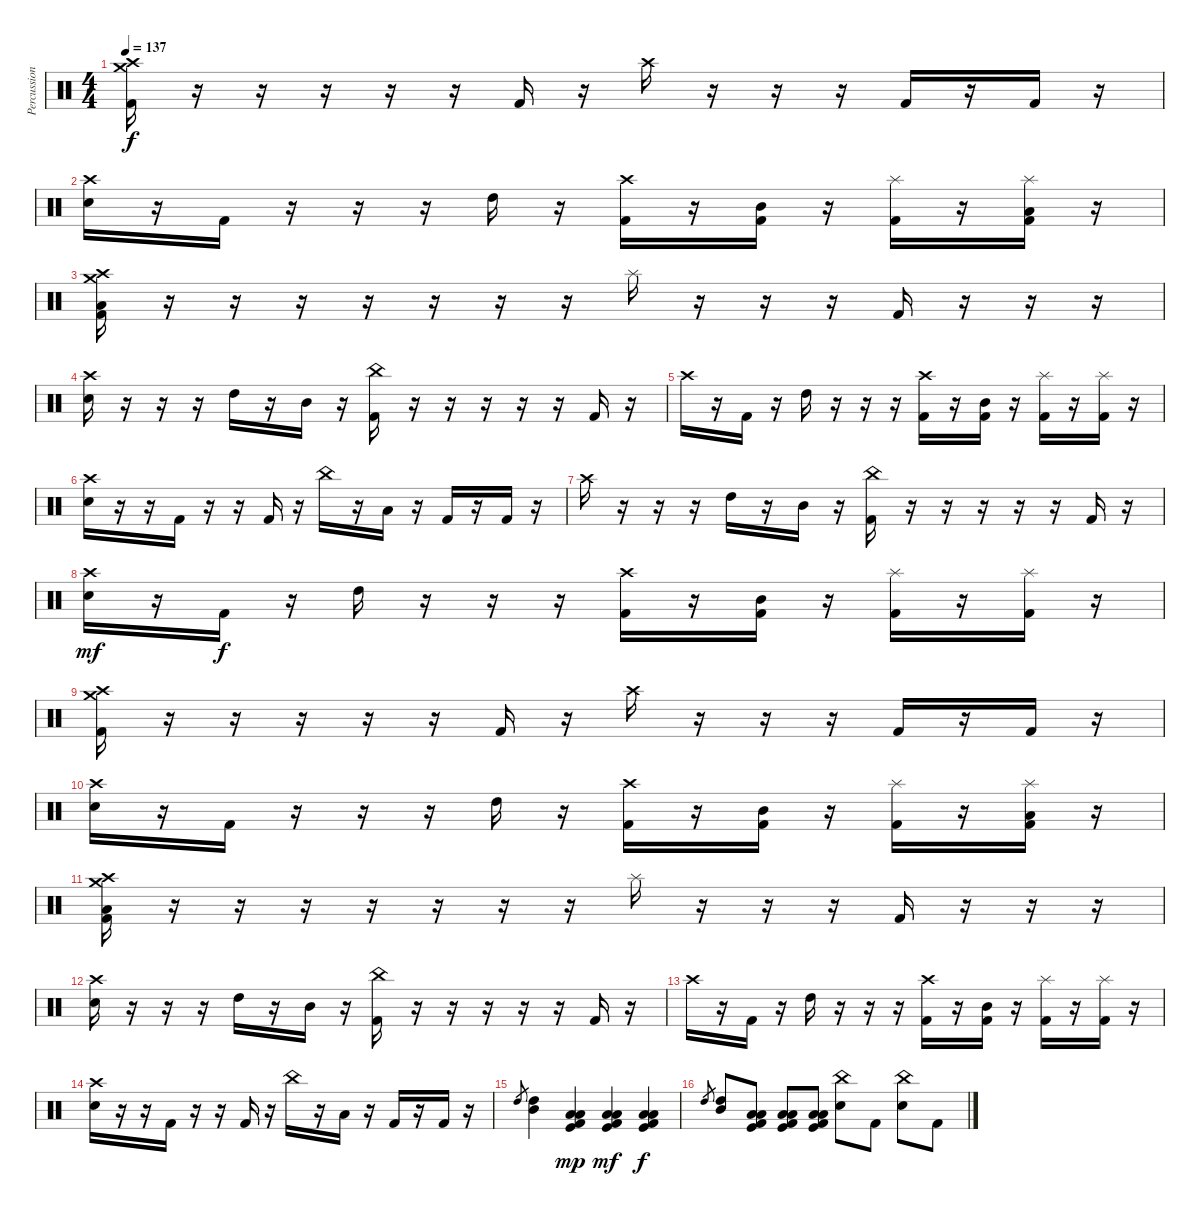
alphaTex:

\track ("Percussion" "Percussion") {instrument percussion}
\staff {score}
\articulation defaults
\ts (4 4)
\tempo 137
\clef neutral
\ks c
("Crash high (hit)" "Crash medium (hit)" "Kick (hit) 2").16{dy f volume 13} r.16 r.16 r.16 r.16 r.16 "Kick (hit) 2".16 r.16 "Crash high (hit)".16 r.16 r.16 r.16 "Kick (hit) 2".16 r.16 "Kick (hit) 2".16 r.16 |
("Crash high (hit)" "Electric Snare (hit)").16 r.16 "Kick (hit) 2".16 r.16 r.16 r.16 "High Tom (hit)".16 r.16 ("Crash high (hit)" "Kick (hit) 2").16 r.16 ("Mid Tom (hit)" "Kick (hit) 2").16 r.16 ("Splash (hit)" "Kick (hit) 2").16 r.16 ("Splash (hit)" "Low Tom (hit)" "Kick (hit) 2").16 r.16 |
("Crash high (hit)" "Crash medium (hit)" "Low Floor Tom (hit)" "Kick (hit) 2").16 r.16 r.16 r.16 r.16 r.16 r.16 r.16 "Splash (hit)".16 r.16 r.16 r.16 "Kick (hit) 2".16 r.16 r.16 r.16 |
("Crash high (hit)" "Electric Snare (hit)").16 r.16 r.16 r.16 "High Tom (hit)".16 r.16 "Mid Tom (hit)".16 r.16 ("China (hit)" "Kick (hit) 2").16 r.16 r.16 r.16 r.16 r.16 "Kick (hit) 2".16 r.16 |
"Crash high (hit)".16 r.16 "Kick (hit) 2".16 r.16 "High Tom (hit)".16 r.16 r.16 r.16 ("Crash high (hit)" "Kick (hit) 2").16 r.16 ("Mid Tom (hit)" "Kick (hit) 2").16 r.16 ("Splash (hit)" "Kick (hit) 2").16 r.16 ("Splash (hit)" "Kick (hit) 2").16 r.16 |
("Crash high (hit)" "Electric Snare (hit)").16 r.16 r.16 "Kick (hit) 2".16 r.16 r.16 "Kick (hit) 2".16 r.16 "China (hit)".16 r.16 "Low Tom (hit)".16 r.16 "Kick (hit) 2".16 r.16 "Kick (hit) 2".16 r.16 |
"Crash high (hit)".16 r.16 r.16 r.16 "High Tom (hit)".16 r.16 "Mid Tom (hit)".16 r.16 ("China (hit)" "Kick (hit) 2").16 r.16 r.16 r.16 r.16 r.16 "Kick (hit) 2".16 r.16 |
("Crash high (hit)" "Electric Snare (hit)").16{dy mf} r.16 "Kick (hit) 2".16{dy f} r.16 "High Tom (hit)".16 r.16 r.16 r.16 ("Crash high (hit)" "Kick (hit) 2").16 r.16 ("Mid Tom (hit)" "Kick (hit) 2").16 r.16 ("Splash (hit)" "Kick (hit) 2").16 r.16 ("Splash (hit)" "Kick (hit) 2").16 r.16 |
("Crash high (hit)" "Crash medium (hit)" "Kick (hit) 2").16{volume 13} r.16 r.16 r.16 r.16 r.16 "Kick (hit) 2".16 r.16 "Crash high (hit)".16 r.16 r.16 r.16 "Kick (hit) 2".16 r.16 "Kick (hit) 2".16 r.16 |
("Crash high (hit)" "Electric Snare (hit)").16 r.16 "Kick (hit) 2".16 r.16 r.16 r.16 "High Tom (hit)".16 r.16 ("Crash high (hit)" "Kick (hit) 2").16 r.16 ("Mid Tom (hit)" "Kick (hit) 2").16 r.16 ("Splash (hit)" "Kick (hit) 2").16 r.16 ("Splash (hit)" "Low Tom (hit)" "Kick (hit) 2").16 r.16 |
("Crash high (hit)" "Crash medium (hit)" "Low Floor Tom (hit)" "Kick (hit) 2").16 r.16 r.16 r.16 r.16 r.16 r.16 r.16 "Splash (hit)".16 r.16 r.16 r.16 "Kick (hit) 2".16 r.16 r.16 r.16 |
("Crash high (hit)" "Electric Snare (hit)").16 r.16 r.16 r.16 "High Tom (hit)".16 r.16 "Mid Tom (hit)".16 r.16 ("China (hit)" "Kick (hit) 2").16 r.16 r.16 r.16 r.16 r.16 "Kick (hit) 2".16 r.16 |
"Crash high (hit)".16 r.16 "Kick (hit) 2".16 r.16 "High Tom (hit)".16 r.16 r.16 r.16 ("Crash high (hit)" "Kick (hit) 2").16 r.16 ("Mid Tom (hit)" "Kick (hit) 2").16 r.16 ("Splash (hit)" "Kick (hit) 2").16 r.16 ("Splash (hit)" "Kick (hit) 2").16 r.16 |
("Crash high (hit)" "Electric Snare (hit)").16 r.16 r.16 "Kick (hit) 2".16 r.16 r.16 "Kick (hit) 2".16 r.16 "China (hit)".16 r.16 "Low Tom (hit)".16 r.16 "Kick (hit) 2".16 r.16 "Kick (hit) 2".16 r.16 |
"High Tom (hit)".8{gr} ("High Tom (hit)" "Mid Tom (hit)").4 ("Kick (hit)" "Low Tom (hit)" "Low Floor Tom (hit)" "Kick (hit) 2").4{dy mp} ("Kick (hit)" "Low Tom (hit)" "Low Floor Tom (hit)" "Kick (hit) 2").4{dy mf} ("Kick (hit)" "Low Tom (hit)" "Low Floor Tom (hit)" "Kick (hit) 2").4{dy f} |
"High Tom (hit)".8{gr} ("High Tom (hit)" "Mid Tom (hit)").8 ("Kick (hit)" "Low Tom (hit)" "Low Floor Tom (hit)" "Kick (hit) 2").8 ("Kick (hit)" "Low Tom (hit)" "Low Floor Tom (hit)" "Kick (hit) 2").8 ("Kick (hit)" "Low Tom (hit)" "Low Floor Tom (hit)" "Kick (hit) 2").8 ("China (hit)" "Electric Snare (hit)").8 "Kick (hit) 2".8 ("China (hit)" "Electric Snare (hit)").8 "Kick (hit) 2".8
